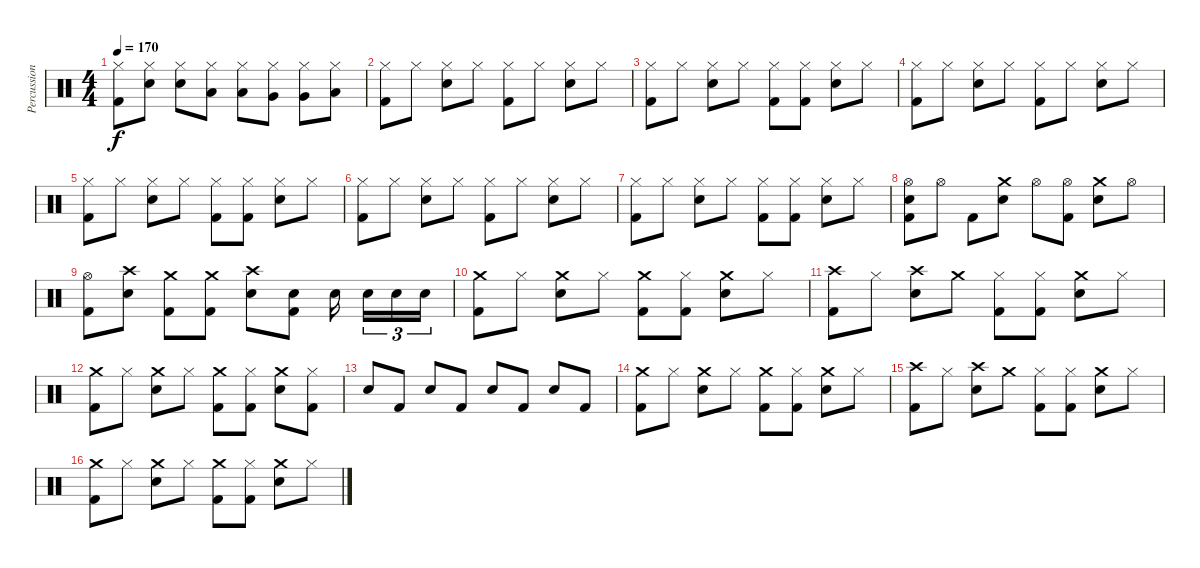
\track ("Percussion" "Percussion") {instrument percussion}
\staff {score}
\articulation defaults
\ts (4 4)
\tempo 170
\clef neutral
\ks c
("Hi-Hat (closed)" "Kick (hit) 2").8{dy f} ("Hi-Hat (closed)" "Snare (hit) 2").8 ("Hi-Hat (closed)" "Snare (hit) 2").8 ("Hi-Hat (closed)" "Low Tom (hit)").8 ("Hi-Hat (closed)" "Low Tom (hit)").8 ("Hi-Hat (closed)" "Very Low Tom (hit)").8 ("Hi-Hat (closed)" "Very Low Tom (hit)").8 ("Hi-Hat (closed)" "Low Floor Tom (hit)").8 |
("Hi-Hat (closed)" "Kick (hit) 2").8 "Hi-Hat (closed)".8 ("Hi-Hat (closed)" "Snare (hit) 2").8 "Hi-Hat (closed)".8 ("Hi-Hat (closed)" "Kick (hit) 2").8 "Hi-Hat (closed)".8 ("Hi-Hat (closed)" "Snare (hit) 2").8 "Hi-Hat (closed)".8 |
("Hi-Hat (closed)" "Kick (hit) 2").8 "Hi-Hat (closed)".8 ("Hi-Hat (closed)" "Snare (hit) 2").8 "Hi-Hat (closed)".8 ("Hi-Hat (closed)" "Kick (hit) 2").8 ("Hi-Hat (closed)" "Kick (hit) 2").8 ("Hi-Hat (closed)" "Snare (hit) 2").8 "Hi-Hat (closed)".8 |
("Hi-Hat (closed)" "Kick (hit) 2").8 "Hi-Hat (closed)".8 ("Hi-Hat (closed)" "Snare (hit) 2").8 "Hi-Hat (closed)".8 ("Hi-Hat (closed)" "Kick (hit) 2").8 "Hi-Hat (closed)".8 ("Hi-Hat (closed)" "Snare (hit) 2").8 "Hi-Hat (closed)".8 |
("Hi-Hat (closed)" "Kick (hit) 2").8 "Hi-Hat (closed)".8 ("Hi-Hat (closed)" "Snare (hit) 2").8 "Hi-Hat (closed)".8 ("Hi-Hat (closed)" "Kick (hit) 2").8 ("Hi-Hat (closed)" "Kick (hit) 2").8 ("Hi-Hat (closed)" "Snare (hit) 2").8 "Hi-Hat (closed)".8 |
("Hi-Hat (closed)" "Kick (hit) 2").8 "Hi-Hat (closed)".8 ("Hi-Hat (closed)" "Snare (hit) 2").8 "Hi-Hat (closed)".8 ("Hi-Hat (closed)" "Kick (hit) 2").8 "Hi-Hat (closed)".8 ("Hi-Hat (closed)" "Snare (hit) 2").8 "Hi-Hat (closed)".8 |
("Hi-Hat (closed)" "Kick (hit) 2").8 "Hi-Hat (closed)".8 ("Hi-Hat (closed)" "Snare (hit) 2").8 "Hi-Hat (closed)".8 ("Hi-Hat (closed)" "Kick (hit) 2").8 ("Hi-Hat (closed)" "Kick (hit) 2").8 ("Hi-Hat (closed)" "Snare (hit) 2").8 "Hi-Hat (closed)".8 |
("Hi-Hat (open)" "Snare (hit) 2" "Kick (hit) 2").8 "Hi-Hat (open)".8 "Kick (hit) 2".8 ("Crash medium (hit)" "Snare (hit) 2").8 "Hi-Hat (open)".8 ("Hi-Hat (open)" "Kick (hit) 2").8 ("Crash medium (hit)" "Snare (hit) 2").8 "Hi-Hat (open)".8 |
("Hi-Hat (open)" "Kick (hit) 2").8 ("Crash high (hit)" "Snare (hit) 2").8 ("Crash medium (hit)" "Kick (hit) 2").8 ("Crash medium (hit)" "Kick (hit) 2").8 ("Crash high (hit)" "Snare (hit) 2").8 ("Snare (hit) 2" "Kick (hit) 2").8 "Snare (hit) 2".16{beam splitsecondary} "Snare (hit) 2".16{tu (3 2)} "Snare (hit) 2".16{tu (3 2)} "Snare (hit) 2".16{tu (3 2)} |
("Crash medium (hit)" "Kick (hit) 2").8 "Hi-Hat (closed)".8 ("Crash medium (hit)" "Snare (hit) 2").8 "Hi-Hat (closed)".8 ("Crash medium (hit)" "Kick (hit) 2").8 ("Hi-Hat (closed)" "Kick (hit) 2").8 ("Crash medium (hit)" "Snare (hit) 2").8 "Hi-Hat (closed)".8 |
("Crash high (hit)" "Kick (hit) 2").8 "Hi-Hat (closed)".8 ("Crash high (hit)" "Snare (hit) 2").8 "Crash medium (hit)".8 ("Hi-Hat (closed)" "Kick (hit) 2").8 ("Hi-Hat (closed)" "Kick (hit) 2").8 ("Crash medium (hit)" "Snare (hit) 2").8 "Hi-Hat (closed)".8 |
("Crash medium (hit)" "Kick (hit) 2").8 "Hi-Hat (closed)".8 ("Crash medium (hit)" "Snare (hit) 2").8 "Hi-Hat (closed)".8 ("Crash medium (hit)" "Kick (hit) 2").8 ("Hi-Hat (closed)" "Kick (hit) 2").8 ("Crash medium (hit)" "Snare (hit) 2").8 ("Hi-Hat (closed)" "Kick (hit) 2").8 |
"Snare (hit) 2".8 "Kick (hit) 2".8 "Snare (hit) 2".8 "Kick (hit) 2".8 "Snare (hit) 2".8 "Kick (hit) 2".8 "Snare (hit) 2".8 "Kick (hit) 2".8 |
("Crash medium (hit)" "Kick (hit) 2").8 "Hi-Hat (closed)".8 ("Crash medium (hit)" "Snare (hit) 2").8 "Hi-Hat (closed)".8 ("Crash medium (hit)" "Kick (hit) 2").8 ("Hi-Hat (closed)" "Kick (hit) 2").8 ("Crash medium (hit)" "Snare (hit) 2").8 "Hi-Hat (closed)".8 |
("Crash high (hit)" "Kick (hit) 2").8 "Hi-Hat (closed)".8 ("Crash high (hit)" "Snare (hit) 2").8 "Crash medium (hit)".8 ("Hi-Hat (closed)" "Kick (hit) 2").8 ("Hi-Hat (closed)" "Kick (hit) 2").8 ("Crash medium (hit)" "Snare (hit) 2").8 "Hi-Hat (closed)".8 |
("Crash medium (hit)" "Kick (hit) 2").8 "Hi-Hat (closed)".8 ("Crash medium (hit)" "Snare (hit) 2").8 "Hi-Hat (closed)".8 ("Crash medium (hit)" "Kick (hit) 2").8 ("Hi-Hat (closed)" "Kick (hit) 2").8 ("Crash medium (hit)" "Snare (hit) 2").8 "Hi-Hat (closed)".8
